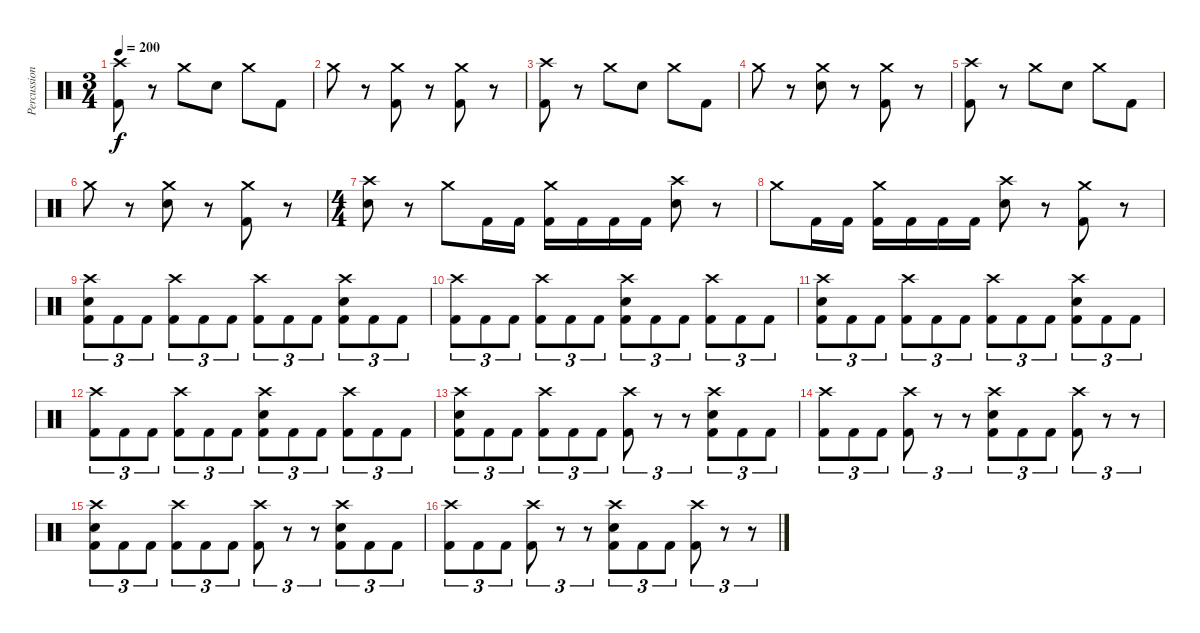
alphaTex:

\track ("Percussion" "Percussion") {instrument percussion}
\staff {score}
\articulation defaults
\ts (3 4)
\tempo 200
\clef neutral
\ks c
("Crash high (hit)" "Kick (hit) 2").8{dy f} r.8 "Crash medium (hit)".8 "Electric Snare (hit)".8 "Crash medium (hit)".8 "Kick (hit) 2".8 |
"Crash medium (hit)".8 r.8 ("Crash medium (hit)" "Kick (hit) 2").8 r.8 ("Crash medium (hit)" "Kick (hit) 2").8 r.8 |
("Crash high (hit)" "Kick (hit) 2").8 r.8 "Crash medium (hit)".8 "Electric Snare (hit)".8 "Crash medium (hit)".8 "Kick (hit) 2".8 |
"Crash medium (hit)".8 r.8 ("Crash medium (hit)" "Electric Snare (hit)").8 r.8 ("Crash medium (hit)" "Kick (hit) 2").8 r.8 |
("Crash high (hit)" "Kick (hit) 2").8 r.8 "Crash medium (hit)".8 "Electric Snare (hit)".8 "Crash medium (hit)".8 "Kick (hit) 2".8 |
"Crash medium (hit)".8 r.8 ("Crash medium (hit)" "Electric Snare (hit)").8 r.8 ("Crash medium (hit)" "Kick (hit) 2").8 r.8 |
\ts (4 4)
("Crash high (hit)" "Electric Snare (hit)").8 r.8 "Crash medium (hit)".8 "Kick (hit) 2".16 "Kick (hit) 2".16 ("Crash medium (hit)" "Kick (hit) 2").16 "Kick (hit) 2".16 "Kick (hit) 2".16 "Kick (hit) 2".16 ("Crash high (hit)" "Electric Snare (hit)").8 r.8 |
"Crash medium (hit)".8 "Kick (hit) 2".16 "Kick (hit) 2".16 ("Crash medium (hit)" "Kick (hit) 2").16 "Kick (hit) 2".16 "Kick (hit) 2".16 "Kick (hit) 2".16 ("Crash high (hit)" "Electric Snare (hit)").8 r.8 ("Crash medium (hit)" "Kick (hit) 2").8 r.8 |
("Crash high (hit)" "Electric Snare (hit)" "Kick (hit) 2").8{tu (3 2)} "Kick (hit) 2".8{tu (3 2)} "Kick (hit) 2".8{tu (3 2)} ("Crash high (hit)" "Kick (hit) 2").8{tu (3 2)} "Kick (hit) 2".8{tu (3 2)} "Kick (hit) 2".8{tu (3 2)} ("Crash high (hit)" "Kick (hit) 2").8{tu (3 2)} "Kick (hit) 2".8{tu (3 2)} "Kick (hit) 2".8{tu (3 2)} ("Crash high (hit)" "Electric Snare (hit)" "Kick (hit) 2").8{tu (3 2)} "Kick (hit) 2".8{tu (3 2)} "Kick (hit) 2".8{tu (3 2)} |
("Crash high (hit)" "Kick (hit) 2").8{tu (3 2)} "Kick (hit) 2".8{tu (3 2)} "Kick (hit) 2".8{tu (3 2)} ("Crash high (hit)" "Kick (hit) 2").8{tu (3 2)} "Kick (hit) 2".8{tu (3 2)} "Kick (hit) 2".8{tu (3 2)} ("Crash high (hit)" "Electric Snare (hit)" "Kick (hit) 2").8{tu (3 2)} "Kick (hit) 2".8{tu (3 2)} "Kick (hit) 2".8{tu (3 2)} ("Crash high (hit)" "Kick (hit) 2").8{tu (3 2)} "Kick (hit) 2".8{tu (3 2)} "Kick (hit) 2".8{tu (3 2)} |
("Crash high (hit)" "Electric Snare (hit)" "Kick (hit) 2").8{tu (3 2)} "Kick (hit) 2".8{tu (3 2)} "Kick (hit) 2".8{tu (3 2)} ("Crash high (hit)" "Kick (hit) 2").8{tu (3 2)} "Kick (hit) 2".8{tu (3 2)} "Kick (hit) 2".8{tu (3 2)} ("Crash high (hit)" "Kick (hit) 2").8{tu (3 2)} "Kick (hit) 2".8{tu (3 2)} "Kick (hit) 2".8{tu (3 2)} ("Crash high (hit)" "Electric Snare (hit)" "Kick (hit) 2").8{tu (3 2)} "Kick (hit) 2".8{tu (3 2)} "Kick (hit) 2".8{tu (3 2)} |
("Crash high (hit)" "Kick (hit) 2").8{tu (3 2)} "Kick (hit) 2".8{tu (3 2)} "Kick (hit) 2".8{tu (3 2)} ("Crash high (hit)" "Kick (hit) 2").8{tu (3 2)} "Kick (hit) 2".8{tu (3 2)} "Kick (hit) 2".8{tu (3 2)} ("Crash high (hit)" "Electric Snare (hit)" "Kick (hit) 2").8{tu (3 2)} "Kick (hit) 2".8{tu (3 2)} "Kick (hit) 2".8{tu (3 2)} ("Crash high (hit)" "Kick (hit) 2").8{tu (3 2)} "Kick (hit) 2".8{tu (3 2)} "Kick (hit) 2".8{tu (3 2)} |
("Crash high (hit)" "Electric Snare (hit)" "Kick (hit) 2").8{tu (3 2)} "Kick (hit) 2".8{tu (3 2)} "Kick (hit) 2".8{tu (3 2)} ("Crash high (hit)" "Kick (hit) 2").8{tu (3 2)} "Kick (hit) 2".8{tu (3 2)} "Kick (hit) 2".8{tu (3 2)} ("Crash high (hit)" "Kick (hit) 2").8{tu (3 2)} r.8{tu (3 2)} r.8{tu (3 2)} ("Crash high (hit)" "Electric Snare (hit)" "Kick (hit) 2").8{tu (3 2)} "Kick (hit) 2".8{tu (3 2)} "Kick (hit) 2".8{tu (3 2)} |
("Crash high (hit)" "Kick (hit) 2").8{tu (3 2)} "Kick (hit) 2".8{tu (3 2)} "Kick (hit) 2".8{tu (3 2)} ("Crash high (hit)" "Kick (hit) 2").8{tu (3 2)} r.8{tu (3 2)} r.8{tu (3 2)} ("Crash high (hit)" "Electric Snare (hit)" "Kick (hit) 2").8{tu (3 2)} "Kick (hit) 2".8{tu (3 2)} "Kick (hit) 2".8{tu (3 2)} ("Crash high (hit)" "Kick (hit) 2").8{tu (3 2)} r.8{tu (3 2)} r.8{tu (3 2)} |
("Crash high (hit)" "Electric Snare (hit)" "Kick (hit) 2").8{tu (3 2)} "Kick (hit) 2".8{tu (3 2)} "Kick (hit) 2".8{tu (3 2)} ("Crash high (hit)" "Kick (hit) 2").8{tu (3 2)} "Kick (hit) 2".8{tu (3 2)} "Kick (hit) 2".8{tu (3 2)} ("Crash high (hit)" "Kick (hit) 2").8{tu (3 2)} r.8{tu (3 2)} r.8{tu (3 2)} ("Crash high (hit)" "Electric Snare (hit)" "Kick (hit) 2").8{tu (3 2)} "Kick (hit) 2".8{tu (3 2)} "Kick (hit) 2".8{tu (3 2)} |
("Crash high (hit)" "Kick (hit) 2").8{tu (3 2)} "Kick (hit) 2".8{tu (3 2)} "Kick (hit) 2".8{tu (3 2)} ("Crash high (hit)" "Kick (hit) 2").8{tu (3 2)} r.8{tu (3 2)} r.8{tu (3 2)} ("Crash high (hit)" "Electric Snare (hit)" "Kick (hit) 2").8{tu (3 2)} "Kick (hit) 2".8{tu (3 2)} "Kick (hit) 2".8{tu (3 2)} ("Crash high (hit)" "Kick (hit) 2").8{tu (3 2)} r.8{tu (3 2)} r.8{tu (3 2)}
